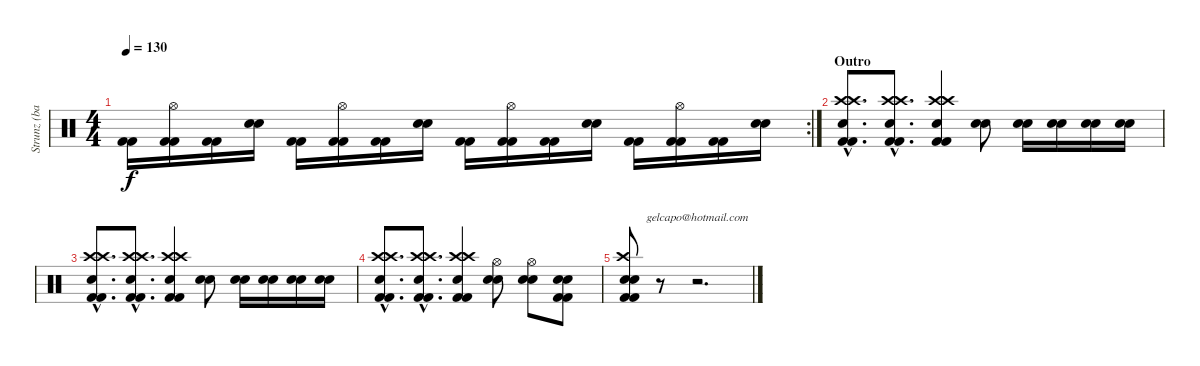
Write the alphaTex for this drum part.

\track ("Strunz (bateria)" "Strunz (ba") {instrument percussion}
\staff {score}
\articulation defaults
\chord ("gelcapo@hotmail.com") {firstfret 0}
\rc 2
\ts (4 4)
\tempo 130
\clef neutral
\ks c
("Kick (hit) 2" "Kick (hit) 2").16{dy f} ("Hi-Hat (open)" "Kick (hit) 2" "Kick (hit) 2").16 ("Kick (hit) 2" "Kick (hit) 2").16 ("Snare (hit) 2" "Snare (hit) 2").16 ("Kick (hit) 2" "Kick (hit) 2").16 ("Hi-Hat (open)" "Kick (hit) 2" "Kick (hit) 2").16 ("Kick (hit) 2" "Kick (hit) 2").16 ("Snare (hit) 2" "Snare (hit) 2").16 ("Kick (hit) 2" "Kick (hit) 2").16 ("Hi-Hat (open)" "Kick (hit) 2" "Kick (hit) 2").16 ("Kick (hit) 2" "Kick (hit) 2").16 ("Snare (hit) 2" "Snare (hit) 2").16 ("Kick (hit) 2" "Kick (hit) 2").16 ("Hi-Hat (open)" "Kick (hit) 2" "Kick (hit) 2").16 ("Kick (hit) 2" "Kick (hit) 2").16 ("Snare (hit) 2" "Snare (hit) 2").16 |
\section ("" "Outro")
("Crash high (hit)"{hac} "Crash high (hit)"{hac} "Electric Snare (hit)"{hac} "Kick (hit) 2"{hac} "Kick (hit) 2"{hac}).8{d} ("Crash high (hit)"{hac} "Crash high (hit)"{hac} "Electric Snare (hit)"{hac} "Kick (hit) 2"{hac} "Kick (hit) 2"{hac}).8{d} ("Crash high (hit)" "Crash high (hit)" "Electric Snare (hit)" "Kick (hit) 2" "Kick (hit) 2").4 ("Snare (hit) 2" "Snare (hit) 2").8 ("Snare (hit) 2" "Snare (hit) 2").16 ("Snare (hit) 2" "Snare (hit) 2").16 ("Snare (hit) 2" "Snare (hit) 2").16 ("Snare (hit) 2" "Snare (hit) 2").16 |
("Crash high (hit)"{hac} "Crash high (hit)"{hac} "Electric Snare (hit)"{hac} "Kick (hit) 2"{hac} "Kick (hit) 2"{hac}).8{d} ("Crash high (hit)"{hac} "Crash high (hit)"{hac} "Electric Snare (hit)"{hac} "Kick (hit) 2"{hac} "Kick (hit) 2"{hac}).8{d} ("Crash high (hit)" "Crash high (hit)" "Electric Snare (hit)" "Kick (hit) 2" "Kick (hit) 2").4 ("Snare (hit) 2" "Snare (hit) 2").8 ("Snare (hit) 2" "Snare (hit) 2").16 ("Snare (hit) 2" "Snare (hit) 2").16 ("Snare (hit) 2" "Snare (hit) 2").16 ("Snare (hit) 2" "Snare (hit) 2").16 |
("Crash high (hit)"{hac} "Crash high (hit)"{hac} "Electric Snare (hit)"{hac} "Kick (hit) 2"{hac} "Kick (hit) 2"{hac}).8{d} ("Crash high (hit)"{hac} "Crash high (hit)"{hac} "Electric Snare (hit)"{hac} "Kick (hit) 2"{hac} "Kick (hit) 2"{hac}).8{d} ("Crash high (hit)" "Crash high (hit)" "Electric Snare (hit)" "Kick (hit) 2" "Kick (hit) 2").4 ("Hi-Hat (open)" "Electric Snare (hit)" "Electric Snare (hit)").8 ("Hi-Hat (open)" "Electric Snare (hit)" "Snare (hit) 2").8 ("Kick (hit) 2" "Kick (hit) 2" "Electric Snare (hit)" "Snare (hit) 2").8 |
("Crash high (hit)" "Kick (hit) 2" "Kick (hit) 2" "Electric Snare (hit)" "Snare (hit) 2").8 r.8 r.2{d ch "gelcapo@hotmail.com"}
